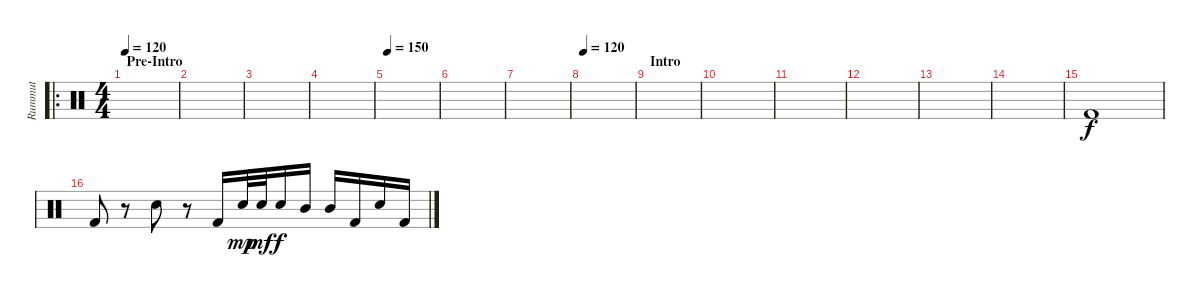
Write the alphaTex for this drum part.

\track ("Rummut" "Rummut") {instrument percussion}
\staff {score}
\articulation defaults
\ro
\ts (4 4)
\section ("" "Pre-Intro")
\tempo 120
\tempo 150
\tempo 120
\clef neutral
\ks c
|
|
|
|
\tempo 150
|
|
|
\tempo 120
|
\section ("" "Intro")
|
|
|
|
|
|
"Kick (hit) 2".1 |
"Kick (hit) 2".8 r.8 "Electric Snare (hit)".8 r.8 "Kick (hit) 2".16 "Electric Snare (hit)".32{dy mp} "Electric Snare (hit)".32{dy mf} "Electric Snare (hit)".16{dy f} "Mid Tom (hit)".16 "Mid Tom (hit)".16 "Kick (hit) 2".16 "Electric Snare (hit)".16 "Kick (hit) 2".16
